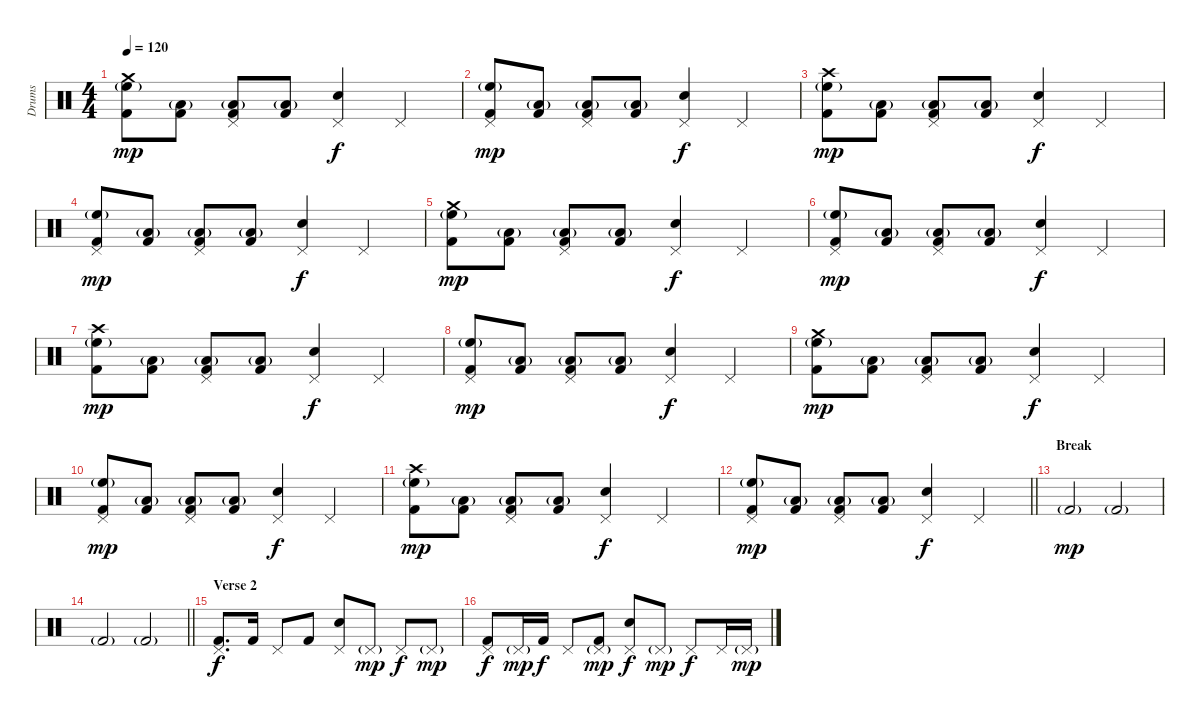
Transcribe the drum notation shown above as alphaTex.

\track ("Drums" "Drums") {instrument percussion}
\staff {score}
\articulation defaults
\ts (4 4)
\tempo 120
\clef neutral
\ks c
("Crash medium (hit)" "High Floor Tom (hit)"{g} "Kick (hit) 2").8{dy mp} ("Low Tom (hit)"{g} "Kick (hit) 2").8 ("Pedal Hi-Hat (hit)" "Low Tom (hit)"{g} "Kick (hit) 2").8 ("Low Tom (hit)"{g} "Kick (hit) 2").8 ("Pedal Hi-Hat (hit)" "Electric Snare (hit)").4{dy f} "Pedal Hi-Hat (hit)".4 |
("Pedal Hi-Hat (hit)" "High Floor Tom (hit)"{g} "Kick (hit) 2").8{dy mp} ("Low Tom (hit)"{g} "Kick (hit) 2").8 ("Pedal Hi-Hat (hit)" "Low Tom (hit)"{g} "Kick (hit) 2").8 ("Low Tom (hit)"{g} "Kick (hit) 2").8 ("Pedal Hi-Hat (hit)" "Electric Snare (hit)").4{dy f} "Pedal Hi-Hat (hit)".4 |
("Crash high (hit)" "High Floor Tom (hit)"{g} "Kick (hit) 2").8{dy mp} ("Low Tom (hit)"{g} "Kick (hit) 2").8 ("Pedal Hi-Hat (hit)" "Low Tom (hit)"{g} "Kick (hit) 2").8 ("Low Tom (hit)"{g} "Kick (hit) 2").8 ("Pedal Hi-Hat (hit)" "Electric Snare (hit)").4{dy f} "Pedal Hi-Hat (hit)".4 |
("Pedal Hi-Hat (hit)" "High Floor Tom (hit)"{g} "Kick (hit) 2").8{dy mp} ("Low Tom (hit)"{g} "Kick (hit) 2").8 ("Pedal Hi-Hat (hit)" "Low Tom (hit)"{g} "Kick (hit) 2").8 ("Low Tom (hit)"{g} "Kick (hit) 2").8 ("Pedal Hi-Hat (hit)" "Electric Snare (hit)").4{dy f} "Pedal Hi-Hat (hit)".4 |
("Crash medium (hit)" "High Floor Tom (hit)"{g} "Kick (hit) 2").8{dy mp} ("Low Tom (hit)"{g} "Kick (hit) 2").8 ("Pedal Hi-Hat (hit)" "Low Tom (hit)"{g} "Kick (hit) 2").8 ("Low Tom (hit)"{g} "Kick (hit) 2").8 ("Pedal Hi-Hat (hit)" "Electric Snare (hit)").4{dy f} "Pedal Hi-Hat (hit)".4 |
("Pedal Hi-Hat (hit)" "High Floor Tom (hit)"{g} "Kick (hit) 2").8{dy mp} ("Low Tom (hit)"{g} "Kick (hit) 2").8 ("Pedal Hi-Hat (hit)" "Low Tom (hit)"{g} "Kick (hit) 2").8 ("Low Tom (hit)"{g} "Kick (hit) 2").8 ("Pedal Hi-Hat (hit)" "Electric Snare (hit)").4{dy f} "Pedal Hi-Hat (hit)".4 |
("Crash high (hit)" "High Floor Tom (hit)"{g} "Kick (hit) 2").8{dy mp} ("Low Tom (hit)"{g} "Kick (hit) 2").8 ("Pedal Hi-Hat (hit)" "Low Tom (hit)"{g} "Kick (hit) 2").8 ("Low Tom (hit)"{g} "Kick (hit) 2").8 ("Pedal Hi-Hat (hit)" "Electric Snare (hit)").4{dy f} "Pedal Hi-Hat (hit)".4 |
("Pedal Hi-Hat (hit)" "High Floor Tom (hit)"{g} "Kick (hit) 2").8{dy mp} ("Low Tom (hit)"{g} "Kick (hit) 2").8 ("Pedal Hi-Hat (hit)" "Low Tom (hit)"{g} "Kick (hit) 2").8 ("Low Tom (hit)"{g} "Kick (hit) 2").8 ("Pedal Hi-Hat (hit)" "Electric Snare (hit)").4{dy f} "Pedal Hi-Hat (hit)".4 |
("Crash medium (hit)" "High Floor Tom (hit)"{g} "Kick (hit) 2").8{dy mp} ("Low Tom (hit)"{g} "Kick (hit) 2").8 ("Pedal Hi-Hat (hit)" "Low Tom (hit)"{g} "Kick (hit) 2").8 ("Low Tom (hit)"{g} "Kick (hit) 2").8 ("Pedal Hi-Hat (hit)" "Electric Snare (hit)").4{dy f} "Pedal Hi-Hat (hit)".4 |
("Pedal Hi-Hat (hit)" "High Floor Tom (hit)"{g} "Kick (hit) 2").8{dy mp} ("Low Tom (hit)"{g} "Kick (hit) 2").8 ("Pedal Hi-Hat (hit)" "Low Tom (hit)"{g} "Kick (hit) 2").8 ("Low Tom (hit)"{g} "Kick (hit) 2").8 ("Pedal Hi-Hat (hit)" "Electric Snare (hit)").4{dy f} "Pedal Hi-Hat (hit)".4 |
("Crash high (hit)" "High Floor Tom (hit)"{g} "Kick (hit) 2").8{dy mp} ("Low Tom (hit)"{g} "Kick (hit) 2").8 ("Pedal Hi-Hat (hit)" "Low Tom (hit)"{g} "Kick (hit) 2").8 ("Low Tom (hit)"{g} "Kick (hit) 2").8 ("Pedal Hi-Hat (hit)" "Electric Snare (hit)").4{dy f} "Pedal Hi-Hat (hit)".4 |
\barLineRight lightlight
("Pedal Hi-Hat (hit)" "High Floor Tom (hit)"{g} "Kick (hit) 2").8{dy mp} ("Low Tom (hit)"{g} "Kick (hit) 2").8 ("Pedal Hi-Hat (hit)" "Low Tom (hit)"{g} "Kick (hit) 2").8 ("Low Tom (hit)"{g} "Kick (hit) 2").8 ("Pedal Hi-Hat (hit)" "Electric Snare (hit)").4{dy f} "Pedal Hi-Hat (hit)".4 |
\section ("" "Break")
"Kick (hit) 2"{g}.2{dy mp} "Kick (hit) 2"{g}.2 |
\barLineRight lightlight "Kick (hit) 2"{g}.2 "Kick (hit) 2"{g}.2
|
\section ("" "Verse 2")
("Pedal Hi-Hat (hit)" "Kick (hit) 2").8{d dy f} "Kick (hit) 2".16 "Pedal Hi-Hat (hit)".8 "Kick (hit) 2".8 ("Pedal Hi-Hat (hit)" "Electric Snare (hit)").8 "Pedal Hi-Hat (hit)"{g}.8{dy mp} "Pedal Hi-Hat (hit)".8{dy f} "Pedal Hi-Hat (hit)"{g}.8{dy mp} |
("Pedal Hi-Hat (hit)" "Kick (hit) 2").8{dy f} "Pedal Hi-Hat (hit)"{g}.16{dy mp} "Kick (hit) 2".16{dy f} "Pedal Hi-Hat (hit)".8 ("Pedal Hi-Hat (hit)"{g} "Kick (hit) 2").8{dy mp} ("Pedal Hi-Hat (hit)" "Electric Snare (hit)").8{dy f} "Pedal Hi-Hat (hit)"{g}.8{dy mp} "Pedal Hi-Hat (hit)".8{dy f} "Pedal Hi-Hat (hit)".16 "Pedal Hi-Hat (hit)"{g}.16{dy mp}
